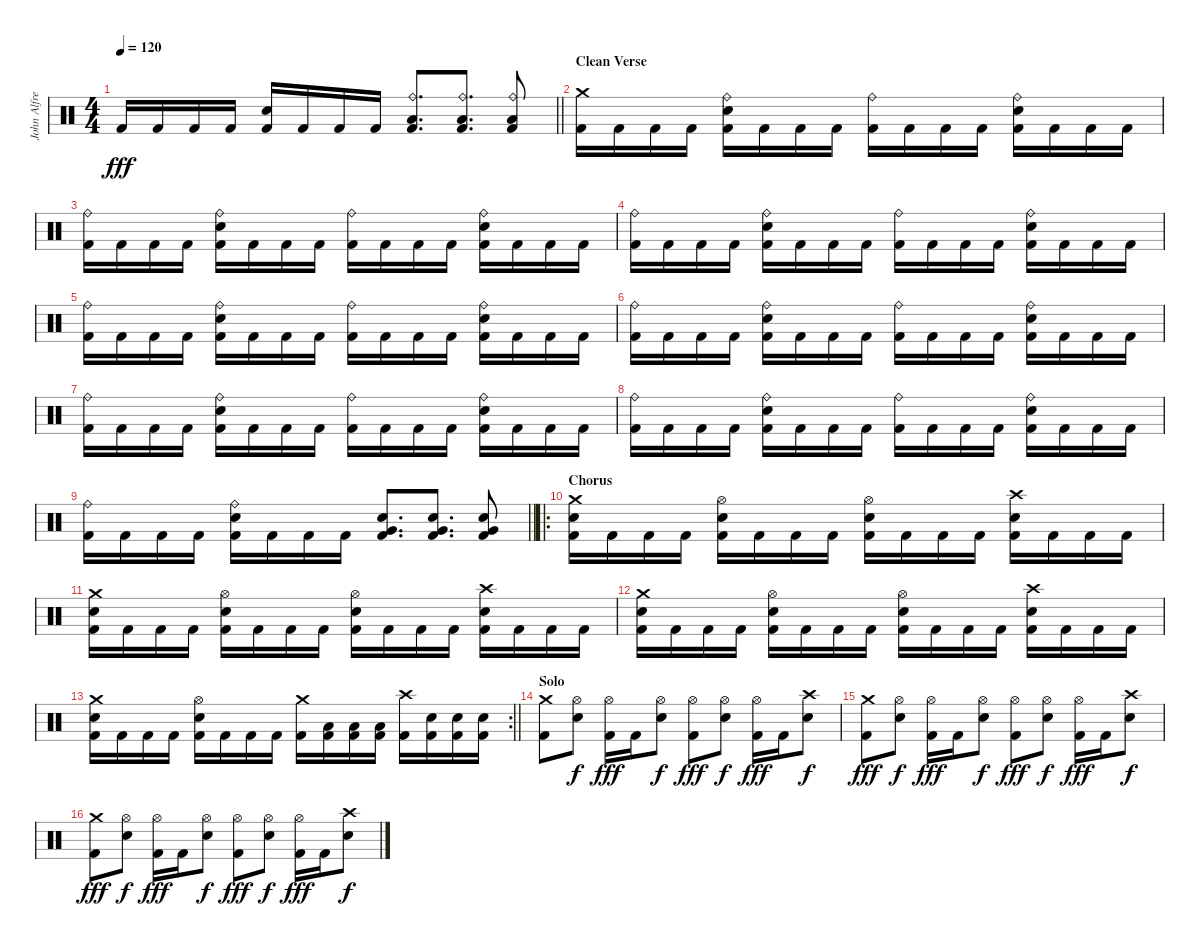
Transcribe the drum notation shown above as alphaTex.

\track ("John Alfredsson" "John Alfre") {instrument percussion}
\staff {score}
\articulation defaults
\ts (4 4)
\tempo 120
\clef neutral
\barLineRight lightlight
\ks c "Kick (hit) 2".16{dy fff} "Kick (hit) 2".16 "Kick (hit) 2".16 "Kick (hit) 2".16
("Electric Snare (hit)" "Kick (hit) 2").16 "Kick (hit) 2".16 "Kick (hit) 2".16 "Kick (hit) 2".16 ("Ride (bell)" "Low Floor Tom (hit)" "Kick (hit) 2").8{d} ("Ride (bell)" "Low Floor Tom (hit)" "Kick (hit) 2").8{d} ("Ride (bell)" "Low Floor Tom (hit)" "Kick (hit) 2").8 |
\section ("" "Clean Verse")
("Crash medium (hit)" "Kick (hit) 2").16 "Kick (hit) 2".16 "Kick (hit) 2".16 "Kick (hit) 2".16 ("Ride (bell)" "Electric Snare (hit)" "Kick (hit) 2").16 "Kick (hit) 2".16 "Kick (hit) 2".16 "Kick (hit) 2".16 ("Ride (bell)" "Kick (hit) 2").16 "Kick (hit) 2".16 "Kick (hit) 2".16 "Kick (hit) 2".16 ("Ride (bell)" "Electric Snare (hit)" "Kick (hit) 2").16 "Kick (hit) 2".16 "Kick (hit) 2".16 "Kick (hit) 2".16 |
("Ride (bell)" "Kick (hit) 2").16 "Kick (hit) 2".16 "Kick (hit) 2".16 "Kick (hit) 2".16 ("Ride (bell)" "Electric Snare (hit)" "Kick (hit) 2").16 "Kick (hit) 2".16 "Kick (hit) 2".16 "Kick (hit) 2".16 ("Ride (bell)" "Kick (hit) 2").16 "Kick (hit) 2".16 "Kick (hit) 2".16 "Kick (hit) 2".16 ("Ride (bell)" "Electric Snare (hit)" "Kick (hit) 2").16 "Kick (hit) 2".16 "Kick (hit) 2".16 "Kick (hit) 2".16 |
("Ride (bell)" "Kick (hit) 2").16 "Kick (hit) 2".16 "Kick (hit) 2".16 "Kick (hit) 2".16 ("Ride (bell)" "Electric Snare (hit)" "Kick (hit) 2").16 "Kick (hit) 2".16 "Kick (hit) 2".16 "Kick (hit) 2".16 ("Ride (bell)" "Kick (hit) 2").16 "Kick (hit) 2".16 "Kick (hit) 2".16 "Kick (hit) 2".16 ("Ride (bell)" "Electric Snare (hit)" "Kick (hit) 2").16 "Kick (hit) 2".16 "Kick (hit) 2".16 "Kick (hit) 2".16 |
("Ride (bell)" "Kick (hit) 2").16 "Kick (hit) 2".16 "Kick (hit) 2".16 "Kick (hit) 2".16 ("Ride (bell)" "Electric Snare (hit)" "Kick (hit) 2").16 "Kick (hit) 2".16 "Kick (hit) 2".16 "Kick (hit) 2".16 ("Ride (bell)" "Kick (hit) 2").16 "Kick (hit) 2".16 "Kick (hit) 2".16 "Kick (hit) 2".16 ("Ride (bell)" "Electric Snare (hit)" "Kick (hit) 2").16 "Kick (hit) 2".16 "Kick (hit) 2".16 "Kick (hit) 2".16 |
("Ride (bell)" "Kick (hit) 2").16 "Kick (hit) 2".16 "Kick (hit) 2".16 "Kick (hit) 2".16 ("Ride (bell)" "Electric Snare (hit)" "Kick (hit) 2").16 "Kick (hit) 2".16 "Kick (hit) 2".16 "Kick (hit) 2".16 ("Ride (bell)" "Kick (hit) 2").16 "Kick (hit) 2".16 "Kick (hit) 2".16 "Kick (hit) 2".16 ("Ride (bell)" "Electric Snare (hit)" "Kick (hit) 2").16 "Kick (hit) 2".16 "Kick (hit) 2".16 "Kick (hit) 2".16 |
("Ride (bell)" "Kick (hit) 2").16 "Kick (hit) 2".16 "Kick (hit) 2".16 "Kick (hit) 2".16 ("Ride (bell)" "Electric Snare (hit)" "Kick (hit) 2").16 "Kick (hit) 2".16 "Kick (hit) 2".16 "Kick (hit) 2".16 ("Ride (bell)" "Kick (hit) 2").16 "Kick (hit) 2".16 "Kick (hit) 2".16 "Kick (hit) 2".16 ("Ride (bell)" "Electric Snare (hit)" "Kick (hit) 2").16 "Kick (hit) 2".16 "Kick (hit) 2".16 "Kick (hit) 2".16 |
("Ride (bell)" "Kick (hit) 2").16 "Kick (hit) 2".16 "Kick (hit) 2".16 "Kick (hit) 2".16 ("Ride (bell)" "Electric Snare (hit)" "Kick (hit) 2").16 "Kick (hit) 2".16 "Kick (hit) 2".16 "Kick (hit) 2".16 ("Ride (bell)" "Kick (hit) 2").16 "Kick (hit) 2".16 "Kick (hit) 2".16 "Kick (hit) 2".16 ("Ride (bell)" "Electric Snare (hit)" "Kick (hit) 2").16 "Kick (hit) 2".16 "Kick (hit) 2".16 "Kick (hit) 2".16 |
\barLineRight lightlight
("Ride (bell)" "Kick (hit) 2").16 "Kick (hit) 2".16 "Kick (hit) 2".16 "Kick (hit) 2".16 ("Ride (bell)" "Electric Snare (hit)" "Kick (hit) 2").16 "Kick (hit) 2".16 "Kick (hit) 2".16 "Kick (hit) 2".16 ("Electric Snare (hit)" "Very Low Tom (hit)" "Kick (hit) 2").8{d} ("Electric Snare (hit)" "Very Low Tom (hit)" "Kick (hit) 2").8{d} ("Electric Snare (hit)" "Very Low Tom (hit)" "Kick (hit) 2").8 |
\ro
\section ("" "Chorus")
("Crash medium (hit)" "Electric Snare (hit)" "Kick (hit) 2").16 "Kick (hit) 2".16 "Kick (hit) 2".16 "Kick (hit) 2".16 ("Hi-Hat (open)" "Electric Snare (hit)" "Kick (hit) 2").16 "Kick (hit) 2".16 "Kick (hit) 2".16 "Kick (hit) 2".16 ("Hi-Hat (open)" "Electric Snare (hit)" "Kick (hit) 2").16 "Kick (hit) 2".16 "Kick (hit) 2".16 "Kick (hit) 2".16 ("Crash high (hit)" "Electric Snare (hit)" "Kick (hit) 2").16 "Kick (hit) 2".16 "Kick (hit) 2".16 "Kick (hit) 2".16 |
("Crash medium (hit)" "Electric Snare (hit)" "Kick (hit) 2").16 "Kick (hit) 2".16 "Kick (hit) 2".16 "Kick (hit) 2".16 ("Hi-Hat (open)" "Electric Snare (hit)" "Kick (hit) 2").16 "Kick (hit) 2".16 "Kick (hit) 2".16 "Kick (hit) 2".16 ("Hi-Hat (open)" "Electric Snare (hit)" "Kick (hit) 2").16 "Kick (hit) 2".16 "Kick (hit) 2".16 "Kick (hit) 2".16 ("Crash high (hit)" "Electric Snare (hit)" "Kick (hit) 2").16 "Kick (hit) 2".16 "Kick (hit) 2".16 "Kick (hit) 2".16 |
("Crash medium (hit)" "Electric Snare (hit)" "Kick (hit) 2").16 "Kick (hit) 2".16 "Kick (hit) 2".16 "Kick (hit) 2".16 ("Hi-Hat (open)" "Electric Snare (hit)" "Kick (hit) 2").16 "Kick (hit) 2".16 "Kick (hit) 2".16 "Kick (hit) 2".16 ("Hi-Hat (open)" "Electric Snare (hit)" "Kick (hit) 2").16 "Kick (hit) 2".16 "Kick (hit) 2".16 "Kick (hit) 2".16 ("Crash high (hit)" "Electric Snare (hit)" "Kick (hit) 2").16 "Kick (hit) 2".16 "Kick (hit) 2".16 "Kick (hit) 2".16 |
\rc 2
\barLineRight lightlight
("Crash medium (hit)" "Electric Snare (hit)" "Kick (hit) 2").16 "Kick (hit) 2".16 "Kick (hit) 2".16 "Kick (hit) 2".16 ("Hi-Hat (open)" "Electric Snare (hit)" "Kick (hit) 2").16 "Kick (hit) 2".16 "Kick (hit) 2".16 "Kick (hit) 2".16 ("Crash medium (hit)" "Kick (hit) 2").16 ("Low Tom (hit)" "Kick (hit) 2").16 ("Low Tom (hit)" "Kick (hit) 2").16 ("Low Tom (hit)" "Kick (hit) 2").16 ("Crash high (hit)" "Kick (hit) 2").16 ("Electric Snare (hit)" "Kick (hit) 2").16 ("Electric Snare (hit)" "Kick (hit) 2").16 ("Electric Snare (hit)" "Kick (hit) 2").16 |
\section ("" "Solo")
("Crash medium (hit)" "Kick (hit) 2").8 ("Hi-Hat (open)" "Electric Snare (hit)").8{dy f} ("Hi-Hat (open)" "Kick (hit) 2").16{dy fff} "Kick (hit) 2".16 ("Hi-Hat (open)" "Electric Snare (hit)").8{dy f} ("Hi-Hat (open)" "Kick (hit) 2").8{dy fff} ("Hi-Hat (open)" "Electric Snare (hit)").8{dy f} ("Hi-Hat (open)" "Kick (hit) 2").16{dy fff} "Kick (hit) 2".16 ("Crash high (hit)" "Electric Snare (hit)").8{dy f} |
("Crash medium (hit)" "Kick (hit) 2").8{dy fff} ("Hi-Hat (open)" "Electric Snare (hit)").8{dy f} ("Hi-Hat (open)" "Kick (hit) 2").16{dy fff} "Kick (hit) 2".16 ("Hi-Hat (open)" "Electric Snare (hit)").8{dy f} ("Hi-Hat (open)" "Kick (hit) 2").8{dy fff} ("Hi-Hat (open)" "Electric Snare (hit)").8{dy f} ("Hi-Hat (open)" "Kick (hit) 2").16{dy fff} "Kick (hit) 2".16 ("Crash high (hit)" "Electric Snare (hit)").8{dy f} |
("Crash medium (hit)" "Kick (hit) 2").8{dy fff} ("Hi-Hat (open)" "Electric Snare (hit)").8{dy f} ("Hi-Hat (open)" "Kick (hit) 2").16{dy fff} "Kick (hit) 2".16 ("Hi-Hat (open)" "Electric Snare (hit)").8{dy f} ("Hi-Hat (open)" "Kick (hit) 2").8{dy fff} ("Hi-Hat (open)" "Electric Snare (hit)").8{dy f} ("Hi-Hat (open)" "Kick (hit) 2").16{dy fff} "Kick (hit) 2".16 ("Crash high (hit)" "Electric Snare (hit)").8{dy f}
